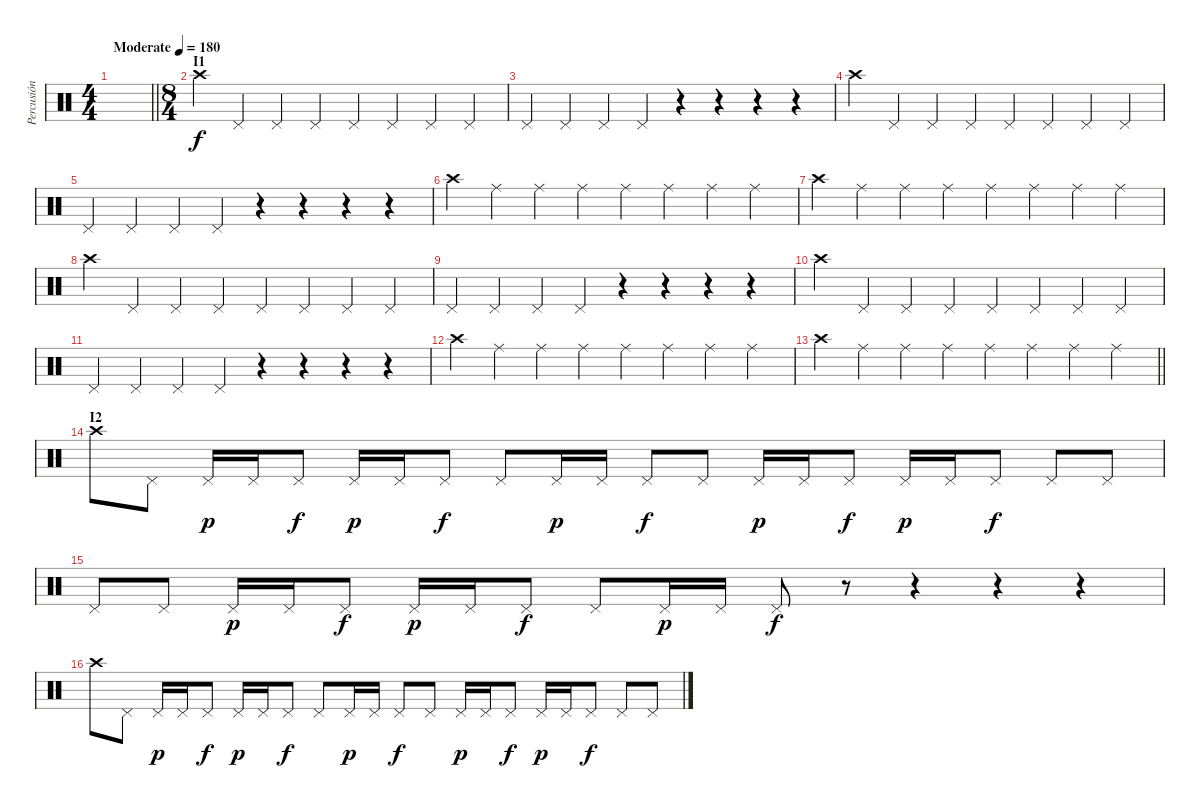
\track ("Percusión" "Percusión") {instrument percussion}
\staff {score}
\articulation defaults
\ts (4 4)
\tempo (180 "Moderate")
\clef neutral
\barLineRight lightlight
\ks c
|
\ts (8 4)
\section ("" "I1")
"Crash high (hit)".4 "Pedal Hi-Hat (hit)".4 "Pedal Hi-Hat (hit)".4 "Pedal Hi-Hat (hit)".4 "Pedal Hi-Hat (hit)".4 "Pedal Hi-Hat (hit)".4 "Pedal Hi-Hat (hit)".4 "Pedal Hi-Hat (hit)".4 |
"Pedal Hi-Hat (hit)".4 "Pedal Hi-Hat (hit)".4 "Pedal Hi-Hat (hit)".4 "Pedal Hi-Hat (hit)".4 r.4 r.4 r.4 r.4 |
"Crash high (hit)".4 "Pedal Hi-Hat (hit)".4 "Pedal Hi-Hat (hit)".4 "Pedal Hi-Hat (hit)".4 "Pedal Hi-Hat (hit)".4 "Pedal Hi-Hat (hit)".4 "Pedal Hi-Hat (hit)".4 "Pedal Hi-Hat (hit)".4 |
"Pedal Hi-Hat (hit)".4 "Pedal Hi-Hat (hit)".4 "Pedal Hi-Hat (hit)".4 "Pedal Hi-Hat (hit)".4 r.4 r.4 r.4 r.4 |
"Crash high (hit)".4 "Ride (middle)".4 "Ride (middle)".4 "Ride (middle)".4 "Ride (middle)".4 "Ride (middle)".4 "Ride (middle)".4 "Ride (middle)".4 |
"Crash high (hit)".4 "Ride (middle)".4 "Ride (middle)".4 "Ride (middle)".4 "Ride (middle)".4 "Ride (middle)".4 "Ride (middle)".4 "Ride (middle)".4 |
"Crash high (hit)".4 "Pedal Hi-Hat (hit)".4 "Pedal Hi-Hat (hit)".4 "Pedal Hi-Hat (hit)".4 "Pedal Hi-Hat (hit)".4 "Pedal Hi-Hat (hit)".4 "Pedal Hi-Hat (hit)".4 "Pedal Hi-Hat (hit)".4 |
"Pedal Hi-Hat (hit)".4 "Pedal Hi-Hat (hit)".4 "Pedal Hi-Hat (hit)".4 "Pedal Hi-Hat (hit)".4 r.4 r.4 r.4 r.4 |
"Crash high (hit)".4 "Pedal Hi-Hat (hit)".4 "Pedal Hi-Hat (hit)".4 "Pedal Hi-Hat (hit)".4 "Pedal Hi-Hat (hit)".4 "Pedal Hi-Hat (hit)".4 "Pedal Hi-Hat (hit)".4 "Pedal Hi-Hat (hit)".4 |
"Pedal Hi-Hat (hit)".4 "Pedal Hi-Hat (hit)".4 "Pedal Hi-Hat (hit)".4 "Pedal Hi-Hat (hit)".4 r.4 r.4 r.4 r.4 |
"Crash high (hit)".4 "Ride (middle)".4 "Ride (middle)".4 "Ride (middle)".4 "Ride (middle)".4 "Ride (middle)".4 "Ride (middle)".4 "Ride (middle)".4 |
\barLineRight lightlight "Crash high (hit)".4 "Ride (middle)".4 "Ride (middle)".4 "Ride (middle)".4 "Ride (middle)".4 "Ride (middle)".4 "Ride (middle)".4 "Ride (middle)".4
|
\section ("" "I2")
"Crash high (hit)".8 "Pedal Hi-Hat (hit)".8 "Pedal Hi-Hat (hit)".16{dy p} "Pedal Hi-Hat (hit)".16 "Pedal Hi-Hat (hit)".8{dy f} "Pedal Hi-Hat (hit)".16{dy p} "Pedal Hi-Hat (hit)".16 "Pedal Hi-Hat (hit)".8{dy f} "Pedal Hi-Hat (hit)".8 "Pedal Hi-Hat (hit)".16{dy p} "Pedal Hi-Hat (hit)".16 "Pedal Hi-Hat (hit)".8{dy f} "Pedal Hi-Hat (hit)".8 "Pedal Hi-Hat (hit)".16{dy p} "Pedal Hi-Hat (hit)".16 "Pedal Hi-Hat (hit)".8{dy f} "Pedal Hi-Hat (hit)".16{dy p} "Pedal Hi-Hat (hit)".16 "Pedal Hi-Hat (hit)".8{dy f} "Pedal Hi-Hat (hit)".8 "Pedal Hi-Hat (hit)".8 |
"Pedal Hi-Hat (hit)".8 "Pedal Hi-Hat (hit)".8 "Pedal Hi-Hat (hit)".16{dy p} "Pedal Hi-Hat (hit)".16 "Pedal Hi-Hat (hit)".8{dy f} "Pedal Hi-Hat (hit)".16{dy p} "Pedal Hi-Hat (hit)".16 "Pedal Hi-Hat (hit)".8{dy f} "Pedal Hi-Hat (hit)".8 "Pedal Hi-Hat (hit)".16{dy p} "Pedal Hi-Hat (hit)".16 "Pedal Hi-Hat (hit)".8{dy f} r.8 r.4 r.4 r.4 |
"Crash high (hit)".8 "Pedal Hi-Hat (hit)".8 "Pedal Hi-Hat (hit)".16{dy p} "Pedal Hi-Hat (hit)".16 "Pedal Hi-Hat (hit)".8{dy f} "Pedal Hi-Hat (hit)".16{dy p} "Pedal Hi-Hat (hit)".16 "Pedal Hi-Hat (hit)".8{dy f} "Pedal Hi-Hat (hit)".8 "Pedal Hi-Hat (hit)".16{dy p} "Pedal Hi-Hat (hit)".16 "Pedal Hi-Hat (hit)".8{dy f} "Pedal Hi-Hat (hit)".8 "Pedal Hi-Hat (hit)".16{dy p} "Pedal Hi-Hat (hit)".16 "Pedal Hi-Hat (hit)".8{dy f} "Pedal Hi-Hat (hit)".16{dy p} "Pedal Hi-Hat (hit)".16 "Pedal Hi-Hat (hit)".8{dy f} "Pedal Hi-Hat (hit)".8 "Pedal Hi-Hat (hit)".8
